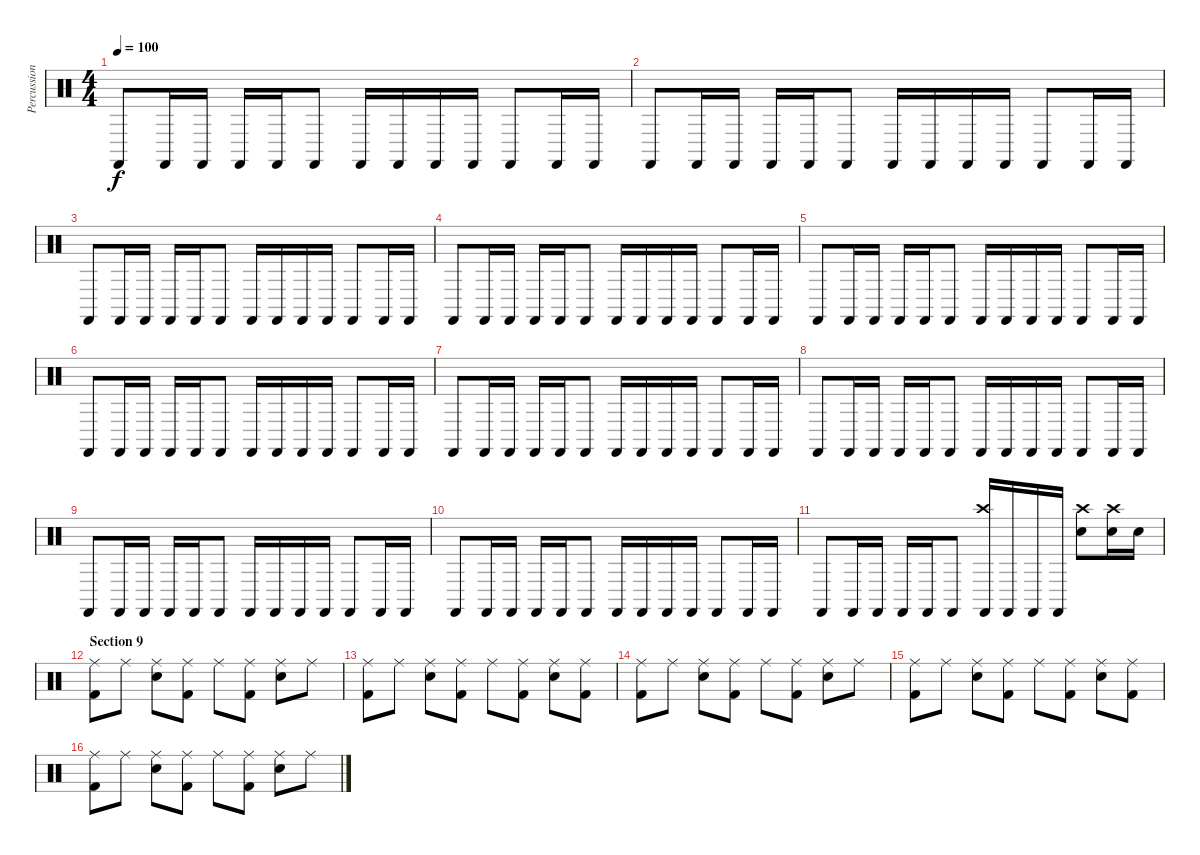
\track ("Percussion" "Percussion") {instrument percussion}
\staff {score}
\articulation defaults
\ts (4 4)
\tempo 100
\clef neutral
\ks c "Castanets (hit)".8{dy f} "Castanets (hit)".16 "Castanets (hit)".16 "Castanets (hit)".16 "Castanets (hit)".16 "Castanets (hit)".8 "Castanets (hit)".16 "Castanets (hit)".16 "Castanets (hit)".16 "Castanets (hit)".16 "Castanets (hit)".8 "Castanets (hit)".16 "Castanets (hit)".16
|
"Castanets (hit)".8 "Castanets (hit)".16 "Castanets (hit)".16 "Castanets (hit)".16 "Castanets (hit)".16 "Castanets (hit)".8 "Castanets (hit)".16 "Castanets (hit)".16 "Castanets (hit)".16 "Castanets (hit)".16 "Castanets (hit)".8 "Castanets (hit)".16 "Castanets (hit)".16 |
"Castanets (hit)".8 "Castanets (hit)".16 "Castanets (hit)".16 "Castanets (hit)".16 "Castanets (hit)".16 "Castanets (hit)".8 "Castanets (hit)".16 "Castanets (hit)".16 "Castanets (hit)".16 "Castanets (hit)".16 "Castanets (hit)".8 "Castanets (hit)".16 "Castanets (hit)".16 |
"Castanets (hit)".8 "Castanets (hit)".16 "Castanets (hit)".16 "Castanets (hit)".16 "Castanets (hit)".16 "Castanets (hit)".8 "Castanets (hit)".16 "Castanets (hit)".16 "Castanets (hit)".16 "Castanets (hit)".16 "Castanets (hit)".8 "Castanets (hit)".16 "Castanets (hit)".16 |
"Castanets (hit)".8 "Castanets (hit)".16 "Castanets (hit)".16 "Castanets (hit)".16 "Castanets (hit)".16 "Castanets (hit)".8 "Castanets (hit)".16 "Castanets (hit)".16 "Castanets (hit)".16 "Castanets (hit)".16 "Castanets (hit)".8 "Castanets (hit)".16 "Castanets (hit)".16 |
"Castanets (hit)".8 "Castanets (hit)".16 "Castanets (hit)".16 "Castanets (hit)".16 "Castanets (hit)".16 "Castanets (hit)".8 "Castanets (hit)".16 "Castanets (hit)".16 "Castanets (hit)".16 "Castanets (hit)".16 "Castanets (hit)".8 "Castanets (hit)".16 "Castanets (hit)".16 |
"Castanets (hit)".8 "Castanets (hit)".16 "Castanets (hit)".16 "Castanets (hit)".16 "Castanets (hit)".16 "Castanets (hit)".8 "Castanets (hit)".16 "Castanets (hit)".16 "Castanets (hit)".16 "Castanets (hit)".16 "Castanets (hit)".8 "Castanets (hit)".16 "Castanets (hit)".16 |
"Castanets (hit)".8 "Castanets (hit)".16 "Castanets (hit)".16 "Castanets (hit)".16 "Castanets (hit)".16 "Castanets (hit)".8 "Castanets (hit)".16 "Castanets (hit)".16 "Castanets (hit)".16 "Castanets (hit)".16 "Castanets (hit)".8 "Castanets (hit)".16 "Castanets (hit)".16 |
"Castanets (hit)".8 "Castanets (hit)".16 "Castanets (hit)".16 "Castanets (hit)".16 "Castanets (hit)".16 "Castanets (hit)".8 "Castanets (hit)".16 "Castanets (hit)".16 "Castanets (hit)".16 "Castanets (hit)".16 "Castanets (hit)".8 "Castanets (hit)".16 "Castanets (hit)".16 |
"Castanets (hit)".8 "Castanets (hit)".16 "Castanets (hit)".16 "Castanets (hit)".16 "Castanets (hit)".16 "Castanets (hit)".8 "Castanets (hit)".16 "Castanets (hit)".16 "Castanets (hit)".16 "Castanets (hit)".16 "Castanets (hit)".8 "Castanets (hit)".16 "Castanets (hit)".16 |
"Castanets (hit)".8 "Castanets (hit)".16 "Castanets (hit)".16 "Castanets (hit)".16 "Castanets (hit)".16 "Castanets (hit)".8 ("Castanets (hit)" "Crash high (hit)").16 "Castanets (hit)".16 "Castanets (hit)".16 "Castanets (hit)".16 ("Electric Snare (hit)" "Crash high (hit)").8 ("Electric Snare (hit)" "Crash high (hit)").16 "Electric Snare (hit)".16 |
\section ("" "Section 9")
("Ride (middle)" "Kick (hit) 2").8 "Ride (middle)".8 ("Ride (middle)" "Electric Snare (hit)").8 ("Ride (middle)" "Kick (hit) 2").8 "Ride (middle)".8 ("Ride (middle)" "Kick (hit) 2").8 ("Ride (middle)" "Electric Snare (hit)").8 "Ride (middle)".8 |
("Ride (middle)" "Kick (hit) 2").8 "Ride (middle)".8 ("Ride (middle)" "Electric Snare (hit)").8 ("Ride (middle)" "Kick (hit) 2").8 "Ride (middle)".8 ("Ride (middle)" "Kick (hit) 2").8 ("Ride (middle)" "Electric Snare (hit)").8 ("Ride (middle)" "Kick (hit) 2").8 |
("Ride (middle)" "Kick (hit) 2").8 "Ride (middle)".8 ("Ride (middle)" "Electric Snare (hit)").8 ("Ride (middle)" "Kick (hit) 2").8 "Ride (middle)".8 ("Ride (middle)" "Kick (hit) 2").8 ("Ride (middle)" "Electric Snare (hit)").8 "Ride (middle)".8 |
("Ride (middle)" "Kick (hit) 2").8 "Ride (middle)".8 ("Ride (middle)" "Electric Snare (hit)").8 ("Ride (middle)" "Kick (hit) 2").8 "Ride (middle)".8 ("Ride (middle)" "Kick (hit) 2").8 ("Ride (middle)" "Electric Snare (hit)").8 ("Ride (middle)" "Kick (hit) 2").8 |
("Ride (middle)" "Kick (hit) 2").8 "Ride (middle)".8 ("Ride (middle)" "Electric Snare (hit)").8 ("Ride (middle)" "Kick (hit) 2").8 "Ride (middle)".8 ("Ride (middle)" "Kick (hit) 2").8 ("Ride (middle)" "Electric Snare (hit)").8 "Ride (middle)".8
